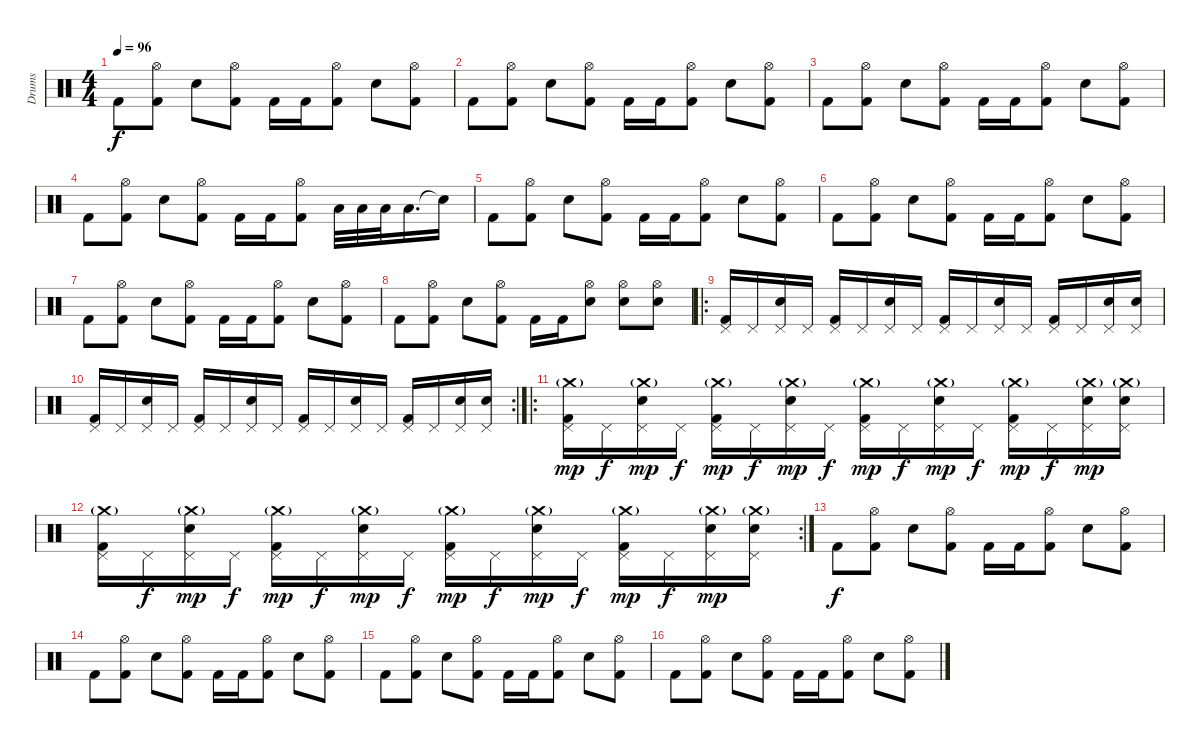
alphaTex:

\track ("Drums" "Drums") {instrument percussion}
\staff
\articulation defaults
\ts (4 4)
\tempo 96
\clef neutral
\ks c "Kick (hit) 2".8{dy f}
("Hi-Hat (open)" "Kick (hit) 2").8 "Snare (hit) 2".8 ("Hi-Hat (open)" "Kick (hit) 2").8 "Kick (hit) 2".16 "Kick (hit) 2".16 ("Hi-Hat (open)" "Kick (hit) 2").8 "Snare (hit) 2".8 ("Hi-Hat (open)" "Kick (hit) 2").8 |
"Kick (hit) 2".8 ("Hi-Hat (open)" "Kick (hit) 2").8 "Snare (hit) 2".8 ("Hi-Hat (open)" "Kick (hit) 2").8 "Kick (hit) 2".16 "Kick (hit) 2".16 ("Hi-Hat (open)" "Kick (hit) 2").8 "Snare (hit) 2".8 ("Hi-Hat (open)" "Kick (hit) 2").8 |
"Kick (hit) 2".8 ("Hi-Hat (open)" "Kick (hit) 2").8 "Snare (hit) 2".8 ("Hi-Hat (open)" "Kick (hit) 2").8 "Kick (hit) 2".16 "Kick (hit) 2".16 ("Hi-Hat (open)" "Kick (hit) 2").8 "Snare (hit) 2".8 ("Hi-Hat (open)" "Kick (hit) 2").8 |
"Kick (hit) 2".8 ("Hi-Hat (open)" "Kick (hit) 2").8 "Snare (hit) 2".8 ("Hi-Hat (open)" "Kick (hit) 2").8 "Kick (hit) 2".16 "Kick (hit) 2".16 ("Hi-Hat (open)" "Kick (hit) 2").8 "Low Tom (hit)".32 "Low Tom (hit)".32 "Low Tom (hit)".32 "Low Tom (hit)".16{d} "Snare (hit)"{t}.16 |
"Kick (hit) 2".8 ("Hi-Hat (open)" "Kick (hit) 2").8 "Snare (hit) 2".8 ("Hi-Hat (open)" "Kick (hit) 2").8 "Kick (hit) 2".16 "Kick (hit) 2".16 ("Hi-Hat (open)" "Kick (hit) 2").8 "Snare (hit) 2".8 ("Hi-Hat (open)" "Kick (hit) 2").8 |
"Kick (hit) 2".8 ("Hi-Hat (open)" "Kick (hit) 2").8 "Snare (hit) 2".8 ("Hi-Hat (open)" "Kick (hit) 2").8 "Kick (hit) 2".16 "Kick (hit) 2".16 ("Hi-Hat (open)" "Kick (hit) 2").8 "Snare (hit) 2".8 ("Hi-Hat (open)" "Kick (hit) 2").8 |
"Kick (hit) 2".8 ("Hi-Hat (open)" "Kick (hit) 2").8 "Snare (hit) 2".8 ("Hi-Hat (open)" "Kick (hit) 2").8 "Kick (hit) 2".16 "Kick (hit) 2".16 ("Hi-Hat (open)" "Kick (hit) 2").8 "Snare (hit) 2".8 ("Hi-Hat (open)" "Kick (hit) 2").8 |
"Kick (hit) 2".8 ("Hi-Hat (open)" "Kick (hit) 2").8 "Snare (hit) 2".8 ("Hi-Hat (open)" "Kick (hit) 2").8 "Kick (hit) 2".16 "Kick (hit) 2".16 ("Hi-Hat (open)" "Snare (hit) 2").8 ("Hi-Hat (open)" "Snare (hit) 2").8 ("Hi-Hat (open)" "Snare (hit) 2").8 |
\ro
("Pedal Hi-Hat (hit)" "Kick (hit) 2").16 "Pedal Hi-Hat (hit)".16 ("Pedal Hi-Hat (hit)" "Snare (hit) 2").16 "Pedal Hi-Hat (hit)".16 ("Pedal Hi-Hat (hit)" "Kick (hit) 2").16 "Pedal Hi-Hat (hit)".16 ("Pedal Hi-Hat (hit)" "Snare (hit) 2").16 "Pedal Hi-Hat (hit)".16 ("Pedal Hi-Hat (hit)" "Kick (hit) 2").16 "Pedal Hi-Hat (hit)".16 ("Pedal Hi-Hat (hit)" "Snare (hit) 2").16 "Pedal Hi-Hat (hit)".16 ("Pedal Hi-Hat (hit)" "Kick (hit) 2").16 "Pedal Hi-Hat (hit)".16 ("Pedal Hi-Hat (hit)" "Snare (hit) 2").16 ("Pedal Hi-Hat (hit)" "Snare (hit) 2").16 |
\rc 2
("Pedal Hi-Hat (hit)" "Kick (hit) 2").16 "Pedal Hi-Hat (hit)".16 ("Pedal Hi-Hat (hit)" "Snare (hit) 2").16 "Pedal Hi-Hat (hit)".16 ("Pedal Hi-Hat (hit)" "Kick (hit) 2").16 "Pedal Hi-Hat (hit)".16 ("Pedal Hi-Hat (hit)" "Snare (hit) 2").16 "Pedal Hi-Hat (hit)".16 ("Pedal Hi-Hat (hit)" "Kick (hit) 2").16 "Pedal Hi-Hat (hit)".16 ("Pedal Hi-Hat (hit)" "Snare (hit) 2").16 "Pedal Hi-Hat (hit)".16 ("Pedal Hi-Hat (hit)" "Kick (hit) 2").16 "Pedal Hi-Hat (hit)".16 ("Pedal Hi-Hat (hit)" "Snare (hit) 2").16 ("Pedal Hi-Hat (hit)" "Snare (hit) 2").16 |
\ro
("Crash medium (hit)"{g} "Pedal Hi-Hat (hit)" "Kick (hit) 2").16{dy mp} "Pedal Hi-Hat (hit)".16{dy f} ("Crash medium (hit)"{g} "Pedal Hi-Hat (hit)" "Snare (hit) 2").16{dy mp} "Pedal Hi-Hat (hit)".16{dy f} ("Crash medium (hit)"{g} "Pedal Hi-Hat (hit)" "Kick (hit) 2").16{dy mp} "Pedal Hi-Hat (hit)".16{dy f} ("Crash medium (hit)"{g} "Pedal Hi-Hat (hit)" "Snare (hit) 2").16{dy mp} "Pedal Hi-Hat (hit)".16{dy f} ("Crash medium (hit)"{g} "Pedal Hi-Hat (hit)" "Kick (hit) 2").16{dy mp} "Pedal Hi-Hat (hit)".16{dy f} ("Crash medium (hit)"{g} "Pedal Hi-Hat (hit)" "Snare (hit) 2").16{dy mp} "Pedal Hi-Hat (hit)".16{dy f} ("Crash medium (hit)"{g} "Pedal Hi-Hat (hit)" "Kick (hit) 2").16{dy mp} "Pedal Hi-Hat (hit)".16{dy f} ("Crash medium (hit)"{g} "Pedal Hi-Hat (hit)" "Snare (hit) 2").16{dy mp} ("Crash medium (hit)"{g} "Pedal Hi-Hat (hit)" "Snare (hit) 2").16 |
\rc 2
("Crash medium (hit)"{g} "Pedal Hi-Hat (hit)" "Kick (hit) 2").16 "Pedal Hi-Hat (hit)".16{dy f} ("Crash medium (hit)"{g} "Pedal Hi-Hat (hit)" "Snare (hit) 2").16{dy mp} "Pedal Hi-Hat (hit)".16{dy f} ("Crash medium (hit)"{g} "Pedal Hi-Hat (hit)" "Kick (hit) 2").16{dy mp} "Pedal Hi-Hat (hit)".16{dy f} ("Crash medium (hit)"{g} "Pedal Hi-Hat (hit)" "Snare (hit) 2").16{dy mp} "Pedal Hi-Hat (hit)".16{dy f} ("Crash medium (hit)"{g} "Pedal Hi-Hat (hit)" "Kick (hit) 2").16{dy mp} "Pedal Hi-Hat (hit)".16{dy f} ("Crash medium (hit)"{g} "Pedal Hi-Hat (hit)" "Snare (hit) 2").16{dy mp} "Pedal Hi-Hat (hit)".16{dy f} ("Crash medium (hit)"{g} "Pedal Hi-Hat (hit)" "Kick (hit) 2").16{dy mp} "Pedal Hi-Hat (hit)".16{dy f} ("Crash medium (hit)"{g} "Pedal Hi-Hat (hit)" "Snare (hit) 2").16{dy mp} ("Crash medium (hit)"{g} "Pedal Hi-Hat (hit)" "Snare (hit) 2").16 |
"Kick (hit) 2".8{dy f} ("Hi-Hat (open)" "Kick (hit) 2").8 "Snare (hit) 2".8 ("Hi-Hat (open)" "Kick (hit) 2").8 "Kick (hit) 2".16 "Kick (hit) 2".16 ("Hi-Hat (open)" "Kick (hit) 2").8 "Snare (hit) 2".8 ("Hi-Hat (open)" "Kick (hit) 2").8 |
"Kick (hit) 2".8 ("Hi-Hat (open)" "Kick (hit) 2").8 "Snare (hit) 2".8 ("Hi-Hat (open)" "Kick (hit) 2").8 "Kick (hit) 2".16 "Kick (hit) 2".16 ("Hi-Hat (open)" "Kick (hit) 2").8 "Snare (hit) 2".8 ("Hi-Hat (open)" "Kick (hit) 2").8 |
"Kick (hit) 2".8 ("Hi-Hat (open)" "Kick (hit) 2").8 "Snare (hit) 2".8 ("Hi-Hat (open)" "Kick (hit) 2").8 "Kick (hit) 2".16 "Kick (hit) 2".16 ("Hi-Hat (open)" "Kick (hit) 2").8 "Snare (hit) 2".8 ("Hi-Hat (open)" "Kick (hit) 2").8 |
"Kick (hit) 2".8 ("Hi-Hat (open)" "Kick (hit) 2").8 "Snare (hit) 2".8 ("Hi-Hat (open)" "Kick (hit) 2").8 "Kick (hit) 2".16 "Kick (hit) 2".16 ("Hi-Hat (open)" "Kick (hit) 2").8 "Snare (hit) 2".8 ("Hi-Hat (open)" "Kick (hit) 2").8
